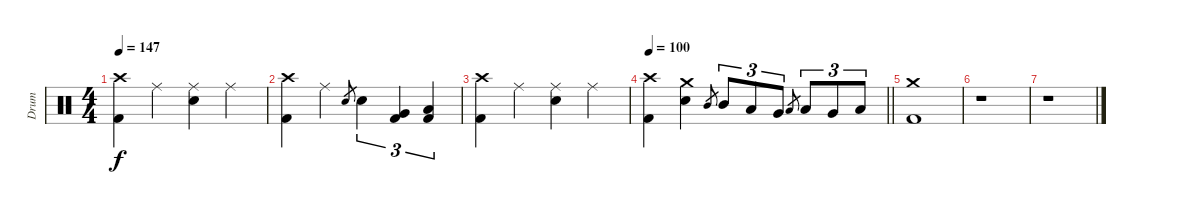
\track ("Drum" "Drum") {instrument percussion}
\staff {score}
\articulation defaults
\ts (4 4)
\tempo 147
\clef neutral
\ks c
("Crash high (hit)" "Kick (hit) 2").4{dy f} "Ride (middle)".4 ("Ride (middle)" "Electric Snare (hit)").4 "Ride (middle)".4 |
("Crash high (hit)" "Kick (hit) 2").4 "Ride (middle)".4 "Electric Snare (hit)".8{gr} "Electric Snare (hit)".4{tu (3 2)} ("Very Low Tom (hit)" "Kick (hit) 2").4{tu (3 2)} ("Low Floor Tom (hit)" "Kick (hit) 2").4{tu (3 2)} |
("Crash high (hit)" "Kick (hit) 2").4 "Ride (middle)".4 ("Ride (middle)" "Electric Snare (hit)").4 "Ride (middle)".4 |
\tempo 100
\barLineRight lightlight
("Crash high (hit)" "Kick (hit) 2").4 ("Crash medium (hit)" "Electric Snare (hit)").4 "Mid Tom (hit)".8{gr} "Mid Tom (hit)".8{tu (3 2)} "Low Tom (hit)".8{tu (3 2)} "Very Low Tom (hit)".8{tu (3 2)} "Low Tom (hit)".8{gr} "Low Tom (hit)".8{tu (3 2)} "Very Low Tom (hit)".8{tu (3 2)} "Low Floor Tom (hit)".8{tu (3 2)} |
("Crash medium (hit)" "Kick (hit) 2").1 |
r.1 |
r.1
